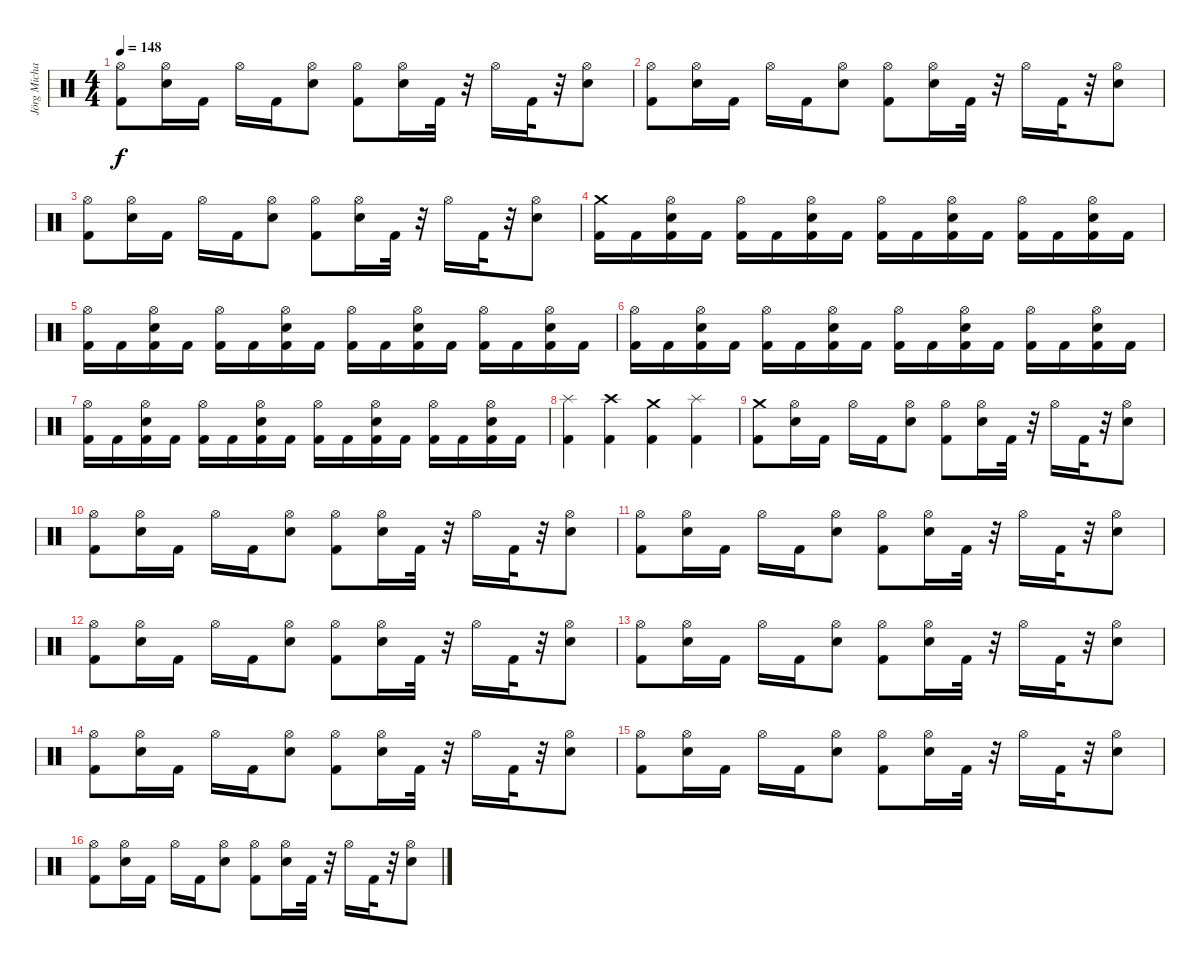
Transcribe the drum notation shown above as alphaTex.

\track ("Jörg Michael" "Jörg Micha") {instrument percussion}
\staff {score}
\articulation defaults
\ts (4 4)
\tempo 148
\clef neutral
\ks c
("Hi-Hat (open)" "Kick (hit) 2").8{dy f} ("Hi-Hat (open)" "Electric Snare (hit)").16 "Kick (hit) 2".16 "Hi-Hat (open)".16 "Kick (hit) 2".16 ("Hi-Hat (open)" "Electric Snare (hit)").8 ("Hi-Hat (open)" "Kick (hit) 2").8 ("Hi-Hat (open)" "Electric Snare (hit)").16 "Kick (hit) 2".32 r.32 "Hi-Hat (open)".16 "Kick (hit) 2".32 r.32 ("Hi-Hat (open)" "Electric Snare (hit)").8 |
("Hi-Hat (open)" "Kick (hit) 2").8 ("Hi-Hat (open)" "Electric Snare (hit)").16 "Kick (hit) 2".16 "Hi-Hat (open)".16 "Kick (hit) 2".16 ("Hi-Hat (open)" "Electric Snare (hit)").8 ("Hi-Hat (open)" "Kick (hit) 2").8 ("Hi-Hat (open)" "Electric Snare (hit)").16 "Kick (hit) 2".32 r.32 "Hi-Hat (open)".16 "Kick (hit) 2".32 r.32 ("Hi-Hat (open)" "Electric Snare (hit)").8 |
("Hi-Hat (open)" "Kick (hit) 2").8 ("Hi-Hat (open)" "Electric Snare (hit)").16 "Kick (hit) 2".16 "Hi-Hat (open)".16 "Kick (hit) 2".16 ("Hi-Hat (open)" "Electric Snare (hit)").8 ("Hi-Hat (open)" "Kick (hit) 2").8 ("Hi-Hat (open)" "Electric Snare (hit)").16 "Kick (hit) 2".32 r.32 "Hi-Hat (open)".16 "Kick (hit) 2".32 r.32 ("Hi-Hat (open)" "Electric Snare (hit)").8 |
("Crash medium (hit)" "Kick (hit) 2").16 "Kick (hit) 2".16 ("Hi-Hat (open)" "Electric Snare (hit)" "Kick (hit) 2").16 "Kick (hit) 2".16 ("Hi-Hat (open)" "Kick (hit) 2").16 "Kick (hit) 2".16 ("Hi-Hat (open)" "Electric Snare (hit)" "Kick (hit) 2").16 "Kick (hit) 2".16 ("Hi-Hat (open)" "Kick (hit) 2").16 "Kick (hit) 2".16 ("Hi-Hat (open)" "Electric Snare (hit)" "Kick (hit) 2").16 "Kick (hit) 2".16 ("Hi-Hat (open)" "Kick (hit) 2").16 "Kick (hit) 2".16 ("Hi-Hat (open)" "Electric Snare (hit)" "Kick (hit) 2").16 "Kick (hit) 2".16 |
("Kick (hit) 2" "Hi-Hat (open)").16 "Kick (hit) 2".16 ("Hi-Hat (open)" "Kick (hit) 2" "Electric Snare (hit)").16 "Kick (hit) 2".16 ("Kick (hit) 2" "Hi-Hat (open)").16 "Kick (hit) 2".16 ("Hi-Hat (open)" "Kick (hit) 2" "Electric Snare (hit)").16 "Kick (hit) 2".16 ("Kick (hit) 2" "Hi-Hat (open)").16 "Kick (hit) 2".16 ("Hi-Hat (open)" "Kick (hit) 2" "Electric Snare (hit)").16 "Kick (hit) 2".16 ("Kick (hit) 2" "Hi-Hat (open)").16 "Kick (hit) 2".16 ("Hi-Hat (open)" "Kick (hit) 2" "Electric Snare (hit)").16 "Kick (hit) 2".16 |
("Kick (hit) 2" "Hi-Hat (open)").16 "Kick (hit) 2".16 ("Hi-Hat (open)" "Kick (hit) 2" "Electric Snare (hit)").16 "Kick (hit) 2".16 ("Kick (hit) 2" "Hi-Hat (open)").16 "Kick (hit) 2".16 ("Hi-Hat (open)" "Kick (hit) 2" "Electric Snare (hit)").16 "Kick (hit) 2".16 ("Kick (hit) 2" "Hi-Hat (open)").16 "Kick (hit) 2".16 ("Hi-Hat (open)" "Kick (hit) 2" "Electric Snare (hit)").16 "Kick (hit) 2".16 ("Kick (hit) 2" "Hi-Hat (open)").16 "Kick (hit) 2".16 ("Hi-Hat (open)" "Kick (hit) 2" "Electric Snare (hit)").16 "Kick (hit) 2".16 |
("Kick (hit) 2" "Hi-Hat (open)").16 "Kick (hit) 2".16 ("Hi-Hat (open)" "Kick (hit) 2" "Electric Snare (hit)").16 "Kick (hit) 2".16 ("Kick (hit) 2" "Hi-Hat (open)").16 "Kick (hit) 2".16 ("Hi-Hat (open)" "Kick (hit) 2" "Electric Snare (hit)").16 "Kick (hit) 2".16 ("Kick (hit) 2" "Hi-Hat (open)").16 "Kick (hit) 2".16 ("Hi-Hat (open)" "Kick (hit) 2" "Electric Snare (hit)").16 "Kick (hit) 2".16 ("Kick (hit) 2" "Hi-Hat (open)").16 "Kick (hit) 2".16 ("Hi-Hat (open)" "Kick (hit) 2" "Electric Snare (hit)").16 "Kick (hit) 2".16 |
("Splash (hit)" "Kick (hit) 2").4 ("Crash high (hit)" "Kick (hit) 2").4 ("Crash medium (hit)" "Kick (hit) 2").4 ("Splash (hit)" "Kick (hit) 2").4 |
("Crash medium (hit)" "Kick (hit) 2").8 ("Hi-Hat (open)" "Electric Snare (hit)").16 "Kick (hit) 2".16 "Hi-Hat (open)".16 "Kick (hit) 2".16 ("Hi-Hat (open)" "Electric Snare (hit)").8 ("Hi-Hat (open)" "Kick (hit) 2").8 ("Hi-Hat (open)" "Electric Snare (hit)").16 "Kick (hit) 2".32 r.32 "Hi-Hat (open)".16 "Kick (hit) 2".32 r.32 ("Hi-Hat (open)" "Electric Snare (hit)").8 |
("Hi-Hat (open)" "Kick (hit) 2").8 ("Hi-Hat (open)" "Electric Snare (hit)").16 "Kick (hit) 2".16 "Hi-Hat (open)".16 "Kick (hit) 2".16 ("Hi-Hat (open)" "Electric Snare (hit)").8 ("Hi-Hat (open)" "Kick (hit) 2").8 ("Hi-Hat (open)" "Electric Snare (hit)").16 "Kick (hit) 2".32 r.32 "Hi-Hat (open)".16 "Kick (hit) 2".32 r.32 ("Hi-Hat (open)" "Electric Snare (hit)").8 |
("Hi-Hat (open)" "Kick (hit) 2").8 ("Hi-Hat (open)" "Electric Snare (hit)").16 "Kick (hit) 2".16 "Hi-Hat (open)".16 "Kick (hit) 2".16 ("Hi-Hat (open)" "Electric Snare (hit)").8 ("Hi-Hat (open)" "Kick (hit) 2").8 ("Hi-Hat (open)" "Electric Snare (hit)").16 "Kick (hit) 2".32 r.32 "Hi-Hat (open)".16 "Kick (hit) 2".32 r.32 ("Hi-Hat (open)" "Electric Snare (hit)").8 |
("Hi-Hat (open)" "Kick (hit) 2").8 ("Hi-Hat (open)" "Electric Snare (hit)").16 "Kick (hit) 2".16 "Hi-Hat (open)".16 "Kick (hit) 2".16 ("Hi-Hat (open)" "Electric Snare (hit)").8 ("Hi-Hat (open)" "Kick (hit) 2").8 ("Hi-Hat (open)" "Electric Snare (hit)").16 "Kick (hit) 2".32 r.32 "Hi-Hat (open)".16 "Kick (hit) 2".32 r.32 ("Hi-Hat (open)" "Electric Snare (hit)").8 |
("Hi-Hat (open)" "Kick (hit) 2").8 ("Hi-Hat (open)" "Electric Snare (hit)").16 "Kick (hit) 2".16 "Hi-Hat (open)".16 "Kick (hit) 2".16 ("Hi-Hat (open)" "Electric Snare (hit)").8 ("Hi-Hat (open)" "Kick (hit) 2").8 ("Hi-Hat (open)" "Electric Snare (hit)").16 "Kick (hit) 2".32 r.32 "Hi-Hat (open)".16 "Kick (hit) 2".32 r.32 ("Hi-Hat (open)" "Electric Snare (hit)").8 |
("Hi-Hat (open)" "Kick (hit) 2").8 ("Hi-Hat (open)" "Electric Snare (hit)").16 "Kick (hit) 2".16 "Hi-Hat (open)".16 "Kick (hit) 2".16 ("Hi-Hat (open)" "Electric Snare (hit)").8 ("Hi-Hat (open)" "Kick (hit) 2").8 ("Hi-Hat (open)" "Electric Snare (hit)").16 "Kick (hit) 2".32 r.32 "Hi-Hat (open)".16 "Kick (hit) 2".32 r.32 ("Hi-Hat (open)" "Electric Snare (hit)").8 |
("Hi-Hat (open)" "Kick (hit) 2").8 ("Hi-Hat (open)" "Electric Snare (hit)").16 "Kick (hit) 2".16 "Hi-Hat (open)".16 "Kick (hit) 2".16 ("Hi-Hat (open)" "Electric Snare (hit)").8 ("Hi-Hat (open)" "Kick (hit) 2").8 ("Hi-Hat (open)" "Electric Snare (hit)").16 "Kick (hit) 2".32 r.32 "Hi-Hat (open)".16 "Kick (hit) 2".32 r.32 ("Hi-Hat (open)" "Electric Snare (hit)").8 |
("Hi-Hat (open)" "Kick (hit) 2").8 ("Hi-Hat (open)" "Electric Snare (hit)").16 "Kick (hit) 2".16 "Hi-Hat (open)".16 "Kick (hit) 2".16 ("Hi-Hat (open)" "Electric Snare (hit)").8 ("Hi-Hat (open)" "Kick (hit) 2").8 ("Hi-Hat (open)" "Electric Snare (hit)").16 "Kick (hit) 2".32 r.32 "Hi-Hat (open)".16 "Kick (hit) 2".32 r.32 ("Hi-Hat (open)" "Electric Snare (hit)").8
